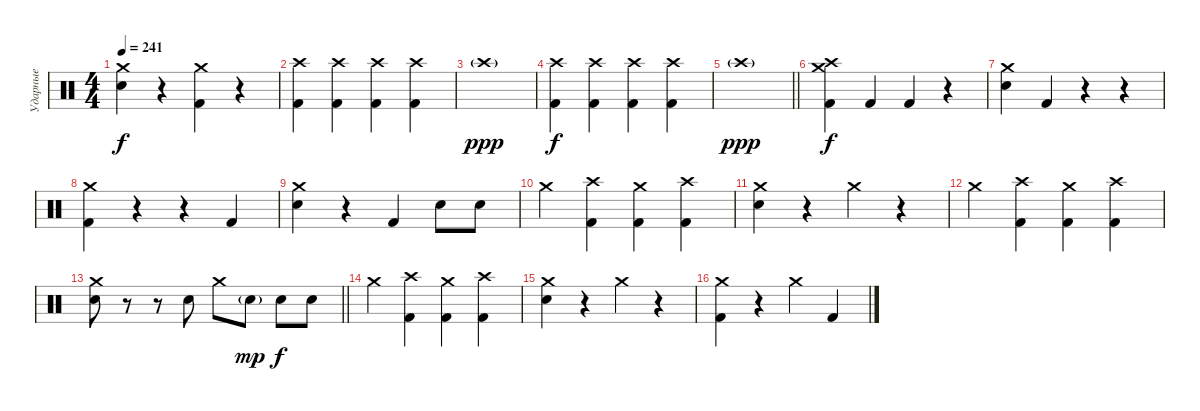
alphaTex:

\track ("Ударные" "Ударные") {instrument percussion}
\staff {score}
\articulation defaults
\ts (4 4)
\tempo 241
\clef neutral
\ks c
("Crash medium (hit)" "Electric Snare (hit)").4{dy f} r.4 ("Crash medium (hit)" "Kick (hit) 2").4 r.4 |
("Crash high (hit)" "Kick (hit) 2").4 ("Crash high (hit)" "Kick (hit) 2").4 ("Crash high (hit)" "Kick (hit) 2").4 ("Crash high (hit)" "Kick (hit) 2").4 |
"Crash high (hit)"{g}.1{dy ppp} |
("Crash high (hit)" "Kick (hit) 2").4{dy f} ("Crash high (hit)" "Kick (hit) 2").4 ("Crash high (hit)" "Kick (hit) 2").4 ("Crash high (hit)" "Kick (hit) 2").4 |
\barLineRight lightlight "Crash high (hit)"{g}.1{dy ppp}
|
("Crash high (hit)" "Crash medium (hit)" "Kick (hit) 2").4{dy f} "Kick (hit) 2".4 "Kick (hit) 2".4 r.4 |
("Crash medium (hit)" "Electric Snare (hit)").4 "Kick (hit) 2".4 r.4 r.4 |
("Crash medium (hit)" "Kick (hit) 2").4 r.4 r.4 "Kick (hit) 2".4 |
("Crash medium (hit)" "Electric Snare (hit)").4 r.4 "Kick (hit) 2".4 "Electric Snare (hit)".8 "Electric Snare (hit)".8 |
"Crash medium (hit)".4 ("Crash high (hit)" "Kick (hit) 2").4 ("Crash medium (hit)" "Kick (hit) 2").4 ("Crash high (hit)" "Kick (hit) 2").4 |
("Crash medium (hit)" "Electric Snare (hit)").4 r.4 "Crash medium (hit)".4 r.4 |
"Crash medium (hit)".4 ("Crash high (hit)" "Kick (hit) 2").4 ("Crash medium (hit)" "Kick (hit) 2").4 ("Crash high (hit)" "Kick (hit) 2").4 |
\barLineRight lightlight
("Crash medium (hit)" "Electric Snare (hit)").8 r.8 r.8 "Electric Snare (hit)".8 "Crash medium (hit)".8 "Electric Snare (hit)"{g}.8{dy mp} "Electric Snare (hit)".8{dy f} "Electric Snare (hit)".8 |
"Crash medium (hit)".4 ("Crash high (hit)" "Kick (hit) 2").4 ("Crash medium (hit)" "Kick (hit) 2").4 ("Crash high (hit)" "Kick (hit) 2").4 |
("Crash medium (hit)" "Electric Snare (hit)").4 r.4 "Crash medium (hit)".4 r.4 |
("Crash medium (hit)" "Kick (hit) 2").4 r.4 "Crash medium (hit)".4 "Kick (hit) 2".4
